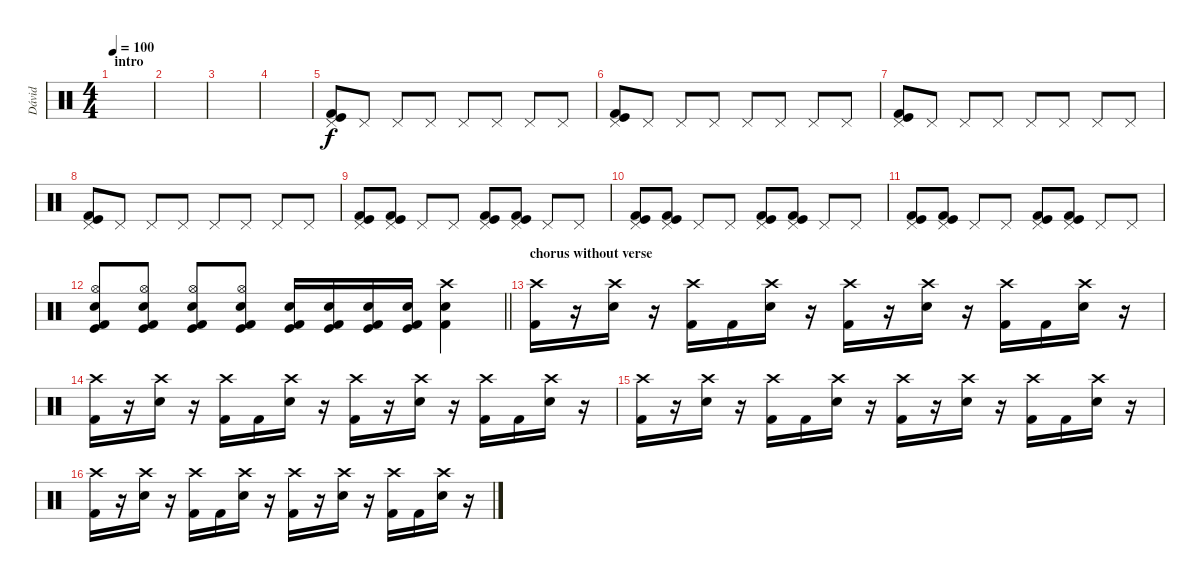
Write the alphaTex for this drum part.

\track ("Dávid" "Dávid") {instrument percussion}
\staff {score}
\articulation defaults
\ts (4 4)
\section ("" "intro")
\tempo 100
\clef neutral
\ks c
|
|
|
|
("Pedal Hi-Hat (hit)" "Kick (hit)" "Kick (hit) 2").8 "Pedal Hi-Hat (hit)".8 "Pedal Hi-Hat (hit)".8 "Pedal Hi-Hat (hit)".8 "Pedal Hi-Hat (hit)".8 "Pedal Hi-Hat (hit)".8 "Pedal Hi-Hat (hit)".8 "Pedal Hi-Hat (hit)".8 |
("Pedal Hi-Hat (hit)" "Kick (hit)" "Kick (hit) 2").8 "Pedal Hi-Hat (hit)".8 "Pedal Hi-Hat (hit)".8 "Pedal Hi-Hat (hit)".8 "Pedal Hi-Hat (hit)".8 "Pedal Hi-Hat (hit)".8 "Pedal Hi-Hat (hit)".8 "Pedal Hi-Hat (hit)".8 |
("Pedal Hi-Hat (hit)" "Kick (hit)" "Kick (hit) 2").8 "Pedal Hi-Hat (hit)".8 "Pedal Hi-Hat (hit)".8 "Pedal Hi-Hat (hit)".8 "Pedal Hi-Hat (hit)".8 "Pedal Hi-Hat (hit)".8 "Pedal Hi-Hat (hit)".8 "Pedal Hi-Hat (hit)".8 |
("Pedal Hi-Hat (hit)" "Kick (hit)" "Kick (hit) 2").8 "Pedal Hi-Hat (hit)".8 "Pedal Hi-Hat (hit)".8 "Pedal Hi-Hat (hit)".8 "Pedal Hi-Hat (hit)".8 "Pedal Hi-Hat (hit)".8 "Pedal Hi-Hat (hit)".8 "Pedal Hi-Hat (hit)".8 |
("Pedal Hi-Hat (hit)" "Kick (hit)" "Kick (hit) 2").8 ("Pedal Hi-Hat (hit)" "Kick (hit)" "Kick (hit) 2").8 "Pedal Hi-Hat (hit)".8 "Pedal Hi-Hat (hit)".8 ("Pedal Hi-Hat (hit)" "Kick (hit) 2" "Kick (hit)").8 ("Pedal Hi-Hat (hit)" "Kick (hit) 2" "Kick (hit)").8 "Pedal Hi-Hat (hit)".8 "Pedal Hi-Hat (hit)".8 |
("Pedal Hi-Hat (hit)" "Kick (hit)" "Kick (hit) 2").8 ("Pedal Hi-Hat (hit)" "Kick (hit)" "Kick (hit) 2").8 "Pedal Hi-Hat (hit)".8 "Pedal Hi-Hat (hit)".8 ("Pedal Hi-Hat (hit)" "Kick (hit) 2" "Kick (hit)").8 ("Pedal Hi-Hat (hit)" "Kick (hit) 2" "Kick (hit)").8 "Pedal Hi-Hat (hit)".8 "Pedal Hi-Hat (hit)".8 |
("Pedal Hi-Hat (hit)" "Kick (hit)" "Kick (hit) 2").8 ("Pedal Hi-Hat (hit)" "Kick (hit)" "Kick (hit) 2").8 "Pedal Hi-Hat (hit)".8 "Pedal Hi-Hat (hit)".8 ("Pedal Hi-Hat (hit)" "Kick (hit) 2" "Kick (hit)").8 ("Pedal Hi-Hat (hit)" "Kick (hit) 2" "Kick (hit)").8 "Pedal Hi-Hat (hit)".8 "Pedal Hi-Hat (hit)".8 |
\barLineRight lightlight
("Hi-Hat (open)" "Snare (hit) 2" "Kick (hit) 2" "Kick (hit)").8 ("Hi-Hat (open)" "Snare (hit) 2" "Kick (hit) 2" "Kick (hit)").8 ("Hi-Hat (open)" "Snare (hit) 2" "Kick (hit) 2" "Kick (hit)").8 ("Hi-Hat (open)" "Snare (hit) 2" "Kick (hit) 2" "Kick (hit)").8 ("Snare (hit) 2" "Kick (hit)" "Kick (hit) 2").16 ("Snare (hit) 2" "Kick (hit)" "Kick (hit) 2").16 ("Snare (hit) 2" "Kick (hit)" "Kick (hit) 2").16 ("Snare (hit) 2" "Kick (hit)" "Kick (hit) 2").16 ("Crash high (hit)" "Snare (hit) 2" "Kick (hit) 2").4 |
\section ("" "chorus without verse")
("Crash high (hit)" "Kick (hit) 2").16 r.16 ("Crash high (hit)" "Snare (hit) 2").16 r.16 ("Crash high (hit)" "Kick (hit) 2").16 "Kick (hit) 2".16 ("Crash high (hit)" "Snare (hit) 2").16 r.16 ("Crash high (hit)" "Kick (hit) 2").16 r.16 ("Crash high (hit)" "Snare (hit) 2").16 r.16 ("Crash high (hit)" "Kick (hit) 2").16 "Kick (hit) 2".16 ("Crash high (hit)" "Snare (hit) 2").16 r.16 |
("Crash high (hit)" "Kick (hit) 2").16 r.16 ("Crash high (hit)" "Snare (hit) 2").16 r.16 ("Crash high (hit)" "Kick (hit) 2").16 "Kick (hit) 2".16 ("Crash high (hit)" "Snare (hit) 2").16 r.16 ("Crash high (hit)" "Kick (hit) 2").16 r.16 ("Crash high (hit)" "Snare (hit) 2").16 r.16 ("Crash high (hit)" "Kick (hit) 2").16 "Kick (hit) 2".16 ("Crash high (hit)" "Snare (hit) 2").16 r.16 |
("Crash high (hit)" "Kick (hit) 2").16 r.16 ("Crash high (hit)" "Snare (hit) 2").16 r.16 ("Crash high (hit)" "Kick (hit) 2").16 "Kick (hit) 2".16 ("Crash high (hit)" "Snare (hit) 2").16 r.16 ("Crash high (hit)" "Kick (hit) 2").16 r.16 ("Crash high (hit)" "Snare (hit) 2").16 r.16 ("Crash high (hit)" "Kick (hit) 2").16 "Kick (hit) 2".16 ("Crash high (hit)" "Snare (hit) 2").16 r.16 |
("Crash high (hit)" "Kick (hit) 2").16 r.16 ("Crash high (hit)" "Snare (hit) 2").16 r.16 ("Crash high (hit)" "Kick (hit) 2").16 "Kick (hit) 2".16 ("Crash high (hit)" "Snare (hit) 2").16 r.16 ("Crash high (hit)" "Kick (hit) 2").16 r.16 ("Crash high (hit)" "Snare (hit) 2").16 r.16 ("Crash high (hit)" "Kick (hit) 2").16 "Kick (hit) 2".16 ("Crash high (hit)" "Snare (hit) 2").16 r.16
